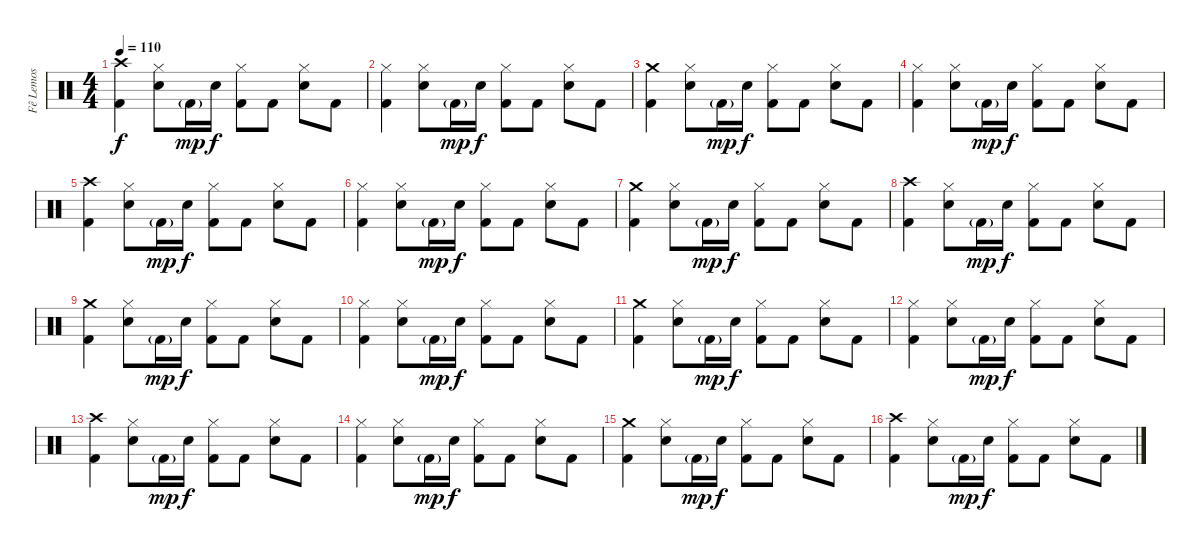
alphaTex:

\track ("Fê Lemos" "Fê Lemos") {instrument percussion}
\staff {score}
\articulation defaults
\ts (4 4)
\tempo 110
\clef neutral
\ks c
("Crash high (hit)" "Kick (hit) 2").4{dy f} ("Hi-Hat (closed)" "Electric Snare (hit)").8 "Kick (hit) 2"{g}.16{dy mp} "Electric Snare (hit)".16{dy f} ("Hi-Hat (closed)" "Kick (hit) 2").8 "Kick (hit) 2".8 ("Hi-Hat (closed)" "Electric Snare (hit)").8 "Kick (hit) 2".8 |
("Hi-Hat (closed)" "Kick (hit) 2").4 ("Hi-Hat (closed)" "Electric Snare (hit)").8 "Kick (hit) 2"{g}.16{dy mp} "Electric Snare (hit)".16{dy f} ("Hi-Hat (closed)" "Kick (hit) 2").8 "Kick (hit) 2".8 ("Hi-Hat (closed)" "Electric Snare (hit)").8 "Kick (hit) 2".8 |
("Crash medium (hit)" "Kick (hit) 2").4 ("Hi-Hat (closed)" "Electric Snare (hit)").8 "Kick (hit) 2"{g}.16{dy mp} "Electric Snare (hit)".16{dy f} ("Hi-Hat (closed)" "Kick (hit) 2").8 "Kick (hit) 2".8 ("Hi-Hat (closed)" "Electric Snare (hit)").8 "Kick (hit) 2".8 |
("Hi-Hat (closed)" "Kick (hit) 2").4 ("Hi-Hat (closed)" "Electric Snare (hit)").8 "Kick (hit) 2"{g}.16{dy mp} "Electric Snare (hit)".16{dy f} ("Hi-Hat (closed)" "Kick (hit) 2").8 "Kick (hit) 2".8 ("Hi-Hat (closed)" "Electric Snare (hit)").8 "Kick (hit) 2".8 |
("Crash high (hit)" "Kick (hit) 2").4 ("Hi-Hat (closed)" "Electric Snare (hit)").8 "Kick (hit) 2"{g}.16{dy mp} "Electric Snare (hit)".16{dy f} ("Hi-Hat (closed)" "Kick (hit) 2").8 "Kick (hit) 2".8 ("Hi-Hat (closed)" "Electric Snare (hit)").8 "Kick (hit) 2".8 |
("Hi-Hat (closed)" "Kick (hit) 2").4 ("Hi-Hat (closed)" "Electric Snare (hit)").8 "Kick (hit) 2"{g}.16{dy mp} "Electric Snare (hit)".16{dy f} ("Hi-Hat (closed)" "Kick (hit) 2").8 "Kick (hit) 2".8 ("Hi-Hat (closed)" "Electric Snare (hit)").8 "Kick (hit) 2".8 |
("Crash medium (hit)" "Kick (hit) 2").4 ("Hi-Hat (closed)" "Electric Snare (hit)").8 "Kick (hit) 2"{g}.16{dy mp} "Electric Snare (hit)".16{dy f} ("Hi-Hat (closed)" "Kick (hit) 2").8 "Kick (hit) 2".8 ("Hi-Hat (closed)" "Electric Snare (hit)").8 "Kick (hit) 2".8 |
("Crash high (hit)" "Kick (hit) 2").4 ("Hi-Hat (closed)" "Electric Snare (hit)").8 "Kick (hit) 2"{g}.16{dy mp} "Electric Snare (hit)".16{dy f} ("Hi-Hat (closed)" "Kick (hit) 2").8 "Kick (hit) 2".8 ("Hi-Hat (closed)" "Electric Snare (hit)").8 "Kick (hit) 2".8 |
("Crash medium (hit)" "Kick (hit) 2").4 ("Hi-Hat (closed)" "Electric Snare (hit)").8 "Kick (hit) 2"{g}.16{dy mp} "Electric Snare (hit)".16{dy f} ("Hi-Hat (closed)" "Kick (hit) 2").8 "Kick (hit) 2".8 ("Hi-Hat (closed)" "Electric Snare (hit)").8 "Kick (hit) 2".8 |
("Hi-Hat (closed)" "Kick (hit) 2").4 ("Hi-Hat (closed)" "Electric Snare (hit)").8 "Kick (hit) 2"{g}.16{dy mp} "Electric Snare (hit)".16{dy f} ("Hi-Hat (closed)" "Kick (hit) 2").8 "Kick (hit) 2".8 ("Hi-Hat (closed)" "Electric Snare (hit)").8 "Kick (hit) 2".8 |
("Crash medium (hit)" "Kick (hit) 2").4 ("Hi-Hat (closed)" "Electric Snare (hit)").8 "Kick (hit) 2"{g}.16{dy mp} "Electric Snare (hit)".16{dy f} ("Hi-Hat (closed)" "Kick (hit) 2").8 "Kick (hit) 2".8 ("Hi-Hat (closed)" "Electric Snare (hit)").8 "Kick (hit) 2".8 |
("Hi-Hat (closed)" "Kick (hit) 2").4 ("Hi-Hat (closed)" "Electric Snare (hit)").8 "Kick (hit) 2"{g}.16{dy mp} "Electric Snare (hit)".16{dy f} ("Hi-Hat (closed)" "Kick (hit) 2").8 "Kick (hit) 2".8 ("Hi-Hat (closed)" "Electric Snare (hit)").8 "Kick (hit) 2".8 |
("Crash high (hit)" "Kick (hit) 2").4 ("Hi-Hat (closed)" "Electric Snare (hit)").8 "Kick (hit) 2"{g}.16{dy mp} "Electric Snare (hit)".16{dy f} ("Hi-Hat (closed)" "Kick (hit) 2").8 "Kick (hit) 2".8 ("Hi-Hat (closed)" "Electric Snare (hit)").8 "Kick (hit) 2".8 |
("Hi-Hat (closed)" "Kick (hit) 2").4 ("Hi-Hat (closed)" "Electric Snare (hit)").8 "Kick (hit) 2"{g}.16{dy mp} "Electric Snare (hit)".16{dy f} ("Hi-Hat (closed)" "Kick (hit) 2").8 "Kick (hit) 2".8 ("Hi-Hat (closed)" "Electric Snare (hit)").8 "Kick (hit) 2".8 |
("Crash medium (hit)" "Kick (hit) 2").4 ("Hi-Hat (closed)" "Electric Snare (hit)").8 "Kick (hit) 2"{g}.16{dy mp} "Electric Snare (hit)".16{dy f} ("Hi-Hat (closed)" "Kick (hit) 2").8 "Kick (hit) 2".8 ("Hi-Hat (closed)" "Electric Snare (hit)").8 "Kick (hit) 2".8 |
("Crash high (hit)" "Kick (hit) 2").4 ("Hi-Hat (closed)" "Electric Snare (hit)").8 "Kick (hit) 2"{g}.16{dy mp} "Electric Snare (hit)".16{dy f} ("Hi-Hat (closed)" "Kick (hit) 2").8 "Kick (hit) 2".8 ("Hi-Hat (closed)" "Electric Snare (hit)").8 "Kick (hit) 2".8
